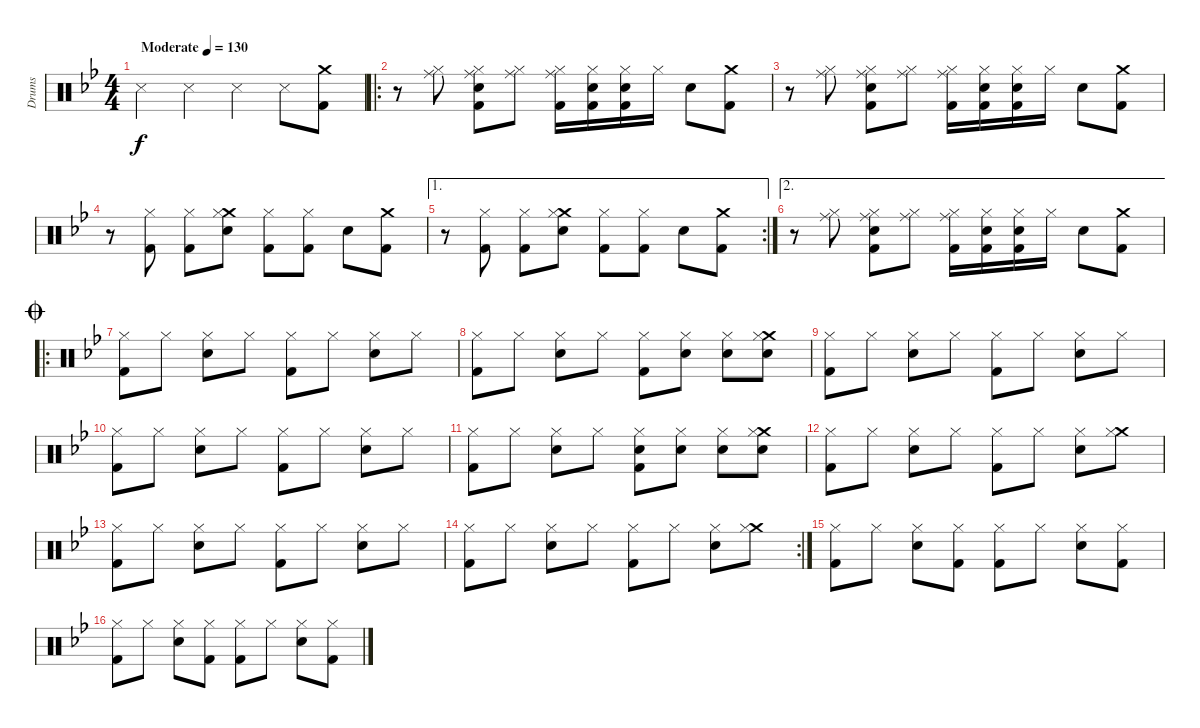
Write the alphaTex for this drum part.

\track ("Drums" "Drums") {instrument percussion}
\staff {score}
\articulation defaults
\ts (4 4)
\tempo (130 "Moderate")
\clef neutral
\ks bb "Snare (side stick) 3".4{dy f} "Snare (side stick) 3".4 "Snare (side stick) 3".4 "Snare (side stick) 3".8
("Crash medium (hit)" "Kick (hit) 2").8 |
\ro
r.8 ("Ride (middle)" "Hi-Hat (closed)").8 ("Ride (middle)" "Hi-Hat (closed)" "Electric Snare (hit)" "Kick (hit) 2").8 ("Ride (middle)" "Hi-Hat (closed)").8 ("Ride (middle)" "Hi-Hat (closed)" "Kick (hit) 2").16 ("Hi-Hat (closed)" "Electric Snare (hit)" "Kick (hit) 2").16 ("Hi-Hat (closed)" "Electric Snare (hit)" "Kick (hit) 2").16 "Hi-Hat (closed)".16 "Electric Snare (hit)".8 ("Crash medium (hit)" "Kick (hit) 2").8 |
r.8 ("Ride (middle)" "Hi-Hat (closed)").8 ("Ride (middle)" "Hi-Hat (closed)" "Electric Snare (hit)" "Kick (hit) 2").8 ("Ride (middle)" "Hi-Hat (closed)").8 ("Ride (middle)" "Hi-Hat (closed)" "Kick (hit) 2").16 ("Hi-Hat (closed)" "Electric Snare (hit)" "Kick (hit) 2").16 ("Hi-Hat (closed)" "Electric Snare (hit)" "Kick (hit) 2").16 "Hi-Hat (closed)".16 "Electric Snare (hit)".8 ("Crash medium (hit)" "Kick (hit) 2").8 |
r.8 ("Hi-Hat (closed)" "Kick (hit) 2").8 ("Hi-Hat (closed)" "Kick (hit) 2").8 ("Crash medium (hit)" "Hi-Hat (closed)" "Electric Snare (hit)").8 ("Hi-Hat (closed)" "Kick (hit) 2").8 ("Hi-Hat (closed)" "Kick (hit) 2").8 "Electric Snare (hit)".8 ("Crash medium (hit)" "Kick (hit) 2").8 |
\ae 1
\rc 2
r.8 ("Hi-Hat (closed)" "Kick (hit) 2").8 ("Hi-Hat (closed)" "Kick (hit) 2").8 ("Crash medium (hit)" "Hi-Hat (closed)" "Electric Snare (hit)").8 ("Hi-Hat (closed)" "Kick (hit) 2").8 ("Hi-Hat (closed)" "Kick (hit) 2").8 "Electric Snare (hit)".8 ("Crash medium (hit)" "Kick (hit) 2").8 |
\ae 2
r.8 ("Ride (middle)" "Hi-Hat (closed)").8 ("Ride (middle)" "Hi-Hat (closed)" "Electric Snare (hit)" "Kick (hit) 2").8 ("Ride (middle)" "Hi-Hat (closed)").8 ("Ride (middle)" "Hi-Hat (closed)" "Kick (hit) 2").16 ("Hi-Hat (closed)" "Electric Snare (hit)" "Kick (hit) 2").16 ("Hi-Hat (closed)" "Electric Snare (hit)" "Kick (hit) 2").16 "Hi-Hat (closed)".16 "Electric Snare (hit)".8 ("Crash medium (hit)" "Kick (hit) 2").8 |
\ro
\jump coda
("Hi-Hat (closed)" "Kick (hit) 2").8 "Hi-Hat (closed)".8 ("Hi-Hat (closed)" "Electric Snare (hit)").8 "Hi-Hat (closed)".8 ("Hi-Hat (closed)" "Kick (hit) 2").8 "Hi-Hat (closed)".8 ("Hi-Hat (closed)" "Electric Snare (hit)").8 "Hi-Hat (closed)".8 |
("Hi-Hat (closed)" "Kick (hit) 2").8 "Hi-Hat (closed)".8 ("Hi-Hat (closed)" "Electric Snare (hit)").8 "Hi-Hat (closed)".8 ("Hi-Hat (closed)" "Kick (hit) 2").8 ("Hi-Hat (closed)" "Electric Snare (hit)").8 ("Hi-Hat (closed)" "Electric Snare (hit)").8 ("Crash medium (hit)" "Hi-Hat (closed)" "Electric Snare (hit)").8 |
("Hi-Hat (closed)" "Kick (hit) 2").8 "Hi-Hat (closed)".8 ("Hi-Hat (closed)" "Electric Snare (hit)").8 "Hi-Hat (closed)".8 ("Hi-Hat (closed)" "Kick (hit) 2").8 "Hi-Hat (closed)".8 ("Hi-Hat (closed)" "Electric Snare (hit)").8 "Hi-Hat (closed)".8 |
("Hi-Hat (closed)" "Kick (hit) 2").8 "Hi-Hat (closed)".8 ("Hi-Hat (closed)" "Electric Snare (hit)").8 "Hi-Hat (closed)".8 ("Hi-Hat (closed)" "Kick (hit) 2").8 "Hi-Hat (closed)".8 ("Hi-Hat (closed)" "Electric Snare (hit)").8 "Hi-Hat (closed)".8 |
("Hi-Hat (closed)" "Kick (hit) 2").8 "Hi-Hat (closed)".8 ("Hi-Hat (closed)" "Electric Snare (hit)").8 "Hi-Hat (closed)".8 ("Hi-Hat (closed)" "Electric Snare (hit)" "Kick (hit) 2").8 ("Hi-Hat (closed)" "Electric Snare (hit)").8 ("Hi-Hat (closed)" "Electric Snare (hit)").8 ("Crash medium (hit)" "Hi-Hat (closed)" "Electric Snare (hit)").8 |
("Hi-Hat (closed)" "Kick (hit) 2").8 "Hi-Hat (closed)".8 ("Hi-Hat (closed)" "Electric Snare (hit)").8 "Hi-Hat (closed)".8 ("Hi-Hat (closed)" "Kick (hit) 2").8 "Hi-Hat (closed)".8 ("Hi-Hat (closed)" "Electric Snare (hit)").8 ("Crash medium (hit)" "Hi-Hat (closed)").8 |
("Hi-Hat (closed)" "Kick (hit) 2").8 "Hi-Hat (closed)".8 ("Hi-Hat (closed)" "Electric Snare (hit)").8 "Hi-Hat (closed)".8 ("Hi-Hat (closed)" "Kick (hit) 2").8 "Hi-Hat (closed)".8 ("Hi-Hat (closed)" "Electric Snare (hit)").8 "Hi-Hat (closed)".8 |
\rc 2
("Hi-Hat (closed)" "Kick (hit) 2").8 "Hi-Hat (closed)".8 ("Hi-Hat (closed)" "Electric Snare (hit)").8 "Hi-Hat (closed)".8 ("Hi-Hat (closed)" "Kick (hit) 2").8 "Hi-Hat (closed)".8 ("Hi-Hat (closed)" "Electric Snare (hit)").8 ("Crash medium (hit)" "Hi-Hat (closed)").8 |
("Hi-Hat (closed)" "Kick (hit) 2").8 "Hi-Hat (closed)".8 ("Hi-Hat (closed)" "Electric Snare (hit)").8 ("Hi-Hat (closed)" "Kick (hit) 2").8 ("Hi-Hat (closed)" "Kick (hit) 2").8 "Hi-Hat (closed)".8 ("Hi-Hat (closed)" "Electric Snare (hit)").8 ("Hi-Hat (closed)" "Kick (hit) 2").8 |
("Hi-Hat (closed)" "Kick (hit) 2").8 "Hi-Hat (closed)".8 ("Hi-Hat (closed)" "Electric Snare (hit)").8 ("Hi-Hat (closed)" "Kick (hit) 2").8 ("Hi-Hat (closed)" "Kick (hit) 2").8 "Hi-Hat (closed)".8 ("Hi-Hat (closed)" "Electric Snare (hit)").8 ("Hi-Hat (closed)" "Kick (hit) 2").8
